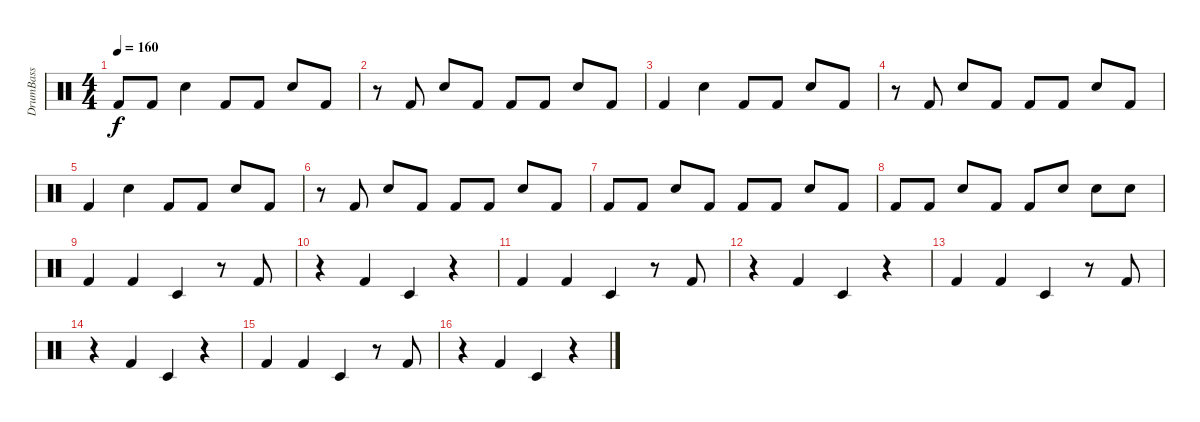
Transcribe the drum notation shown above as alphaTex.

\track ("DrumBass" "DrumBass") {instrument percussion}
\staff {score}
\articulation defaults
\ts (4 4)
\tempo 160
\clef neutral
\ks c "Kick (hit) 2".8{dy f} "Kick (hit) 2".8 "Snare (hit) 2".4 "Kick (hit) 2".8 "Kick (hit) 2".8 "Snare (hit) 2".8 "Kick (hit) 2".8
|
r.8 "Kick (hit) 2".8 "Snare (hit) 2".8 "Kick (hit) 2".8 "Kick (hit) 2".8 "Kick (hit) 2".8 "Snare (hit) 2".8 "Kick (hit) 2".8 |
"Kick (hit) 2".4 "Snare (hit) 2".4 "Kick (hit) 2".8 "Kick (hit) 2".8 "Snare (hit) 2".8 "Kick (hit) 2".8 |
r.8 "Kick (hit) 2".8 "Snare (hit) 2".8 "Kick (hit) 2".8 "Kick (hit) 2".8 "Kick (hit) 2".8 "Snare (hit) 2".8 "Kick (hit) 2".8 |
"Kick (hit) 2".4 "Snare (hit) 2".4 "Kick (hit) 2".8 "Kick (hit) 2".8 "Snare (hit) 2".8 "Kick (hit) 2".8 |
r.8 "Kick (hit) 2".8 "Snare (hit) 2".8 "Kick (hit) 2".8 "Kick (hit) 2".8 "Kick (hit) 2".8 "Snare (hit) 2".8 "Kick (hit) 2".8 |
"Kick (hit) 2".8 "Kick (hit) 2".8 "Snare (hit) 2".8 "Kick (hit) 2".8 "Kick (hit) 2".8 "Kick (hit) 2".8 "Snare (hit) 2".8 "Kick (hit) 2".8 |
"Kick (hit) 2".8 "Kick (hit) 2".8 "Snare (hit) 2".8 "Kick (hit) 2".8 "Kick (hit) 2".8 "Snare (hit) 2"{tr (38 16)}.8 "Snare (hit) 2"{tr (38 16)}.8 "Snare (hit) 2"{tr (38 16)}.8 |
"Kick (hit) 2".4 "Kick (hit) 2".4 "Timbale low (hit)".4 r.8 "Kick (hit) 2".8 |
r.4 "Kick (hit) 2".4 "Timbale low (hit)".4 r.4 |
"Kick (hit) 2".4 "Kick (hit) 2".4 "Timbale low (hit)".4 r.8 "Kick (hit) 2".8 |
r.4 "Kick (hit) 2".4 "Timbale low (hit)".4 r.4 |
"Kick (hit) 2".4 "Kick (hit) 2".4 "Timbale low (hit)".4 r.8 "Kick (hit) 2".8 |
r.4 "Kick (hit) 2".4 "Timbale low (hit)".4 r.4 |
"Kick (hit) 2".4 "Kick (hit) 2".4 "Timbale low (hit)".4 r.8 "Kick (hit) 2".8 |
r.4 "Kick (hit) 2".4 "Timbale low (hit)".4 r.4
